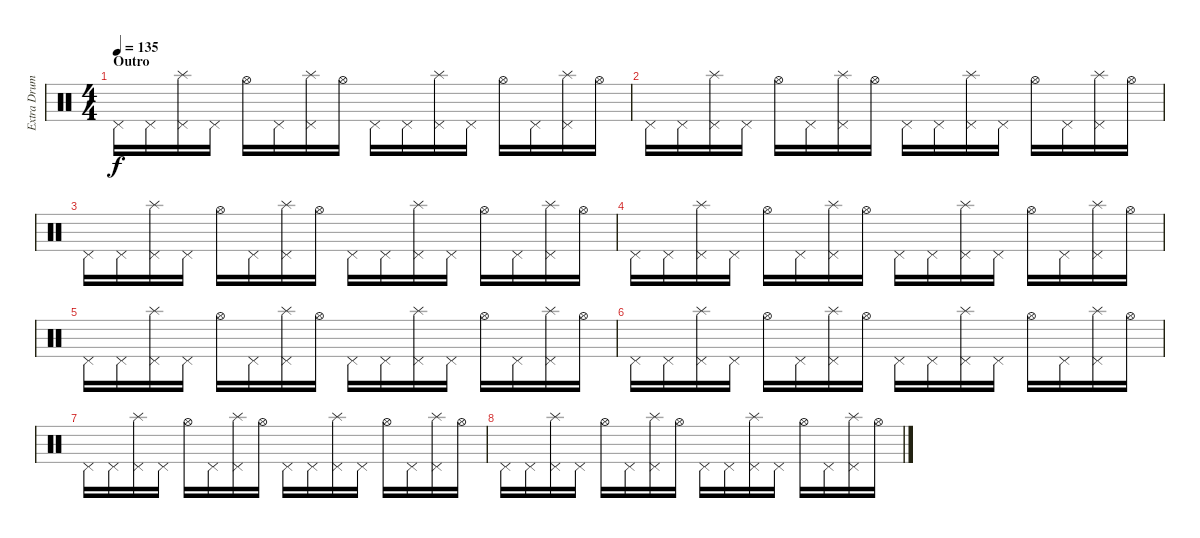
\track ("Extra Drums" "Extra Drum") {instrument percussion}
\staff {score}
\articulation defaults
\ts (4 4)
\section ("" "Outro")
\tempo 135
\clef neutral
\ks c "Pedal Hi-Hat (hit)".16{dy f} "Pedal Hi-Hat (hit)".16
("Pedal Hi-Hat (hit)" "Splash (hit)").16 "Pedal Hi-Hat (hit)".16 "Hi-Hat (open)".16 "Pedal Hi-Hat (hit)".16 ("Pedal Hi-Hat (hit)" "Splash (hit)").16 "Hi-Hat (open)".16 "Pedal Hi-Hat (hit)".16 "Pedal Hi-Hat (hit)".16 ("Pedal Hi-Hat (hit)" "Splash (hit)").16 "Pedal Hi-Hat (hit)".16 "Hi-Hat (open)".16 "Pedal Hi-Hat (hit)".16 ("Pedal Hi-Hat (hit)" "Splash (hit)").16 "Hi-Hat (open)".16 |
"Pedal Hi-Hat (hit)".16 "Pedal Hi-Hat (hit)".16 ("Pedal Hi-Hat (hit)" "Splash (hit)").16 "Pedal Hi-Hat (hit)".16 "Hi-Hat (open)".16 "Pedal Hi-Hat (hit)".16 ("Pedal Hi-Hat (hit)" "Splash (hit)").16 "Hi-Hat (open)".16 "Pedal Hi-Hat (hit)".16 "Pedal Hi-Hat (hit)".16 ("Pedal Hi-Hat (hit)" "Splash (hit)").16 "Pedal Hi-Hat (hit)".16 "Hi-Hat (open)".16 "Pedal Hi-Hat (hit)".16 ("Pedal Hi-Hat (hit)" "Splash (hit)").16 "Hi-Hat (open)".16 |
"Pedal Hi-Hat (hit)".16 "Pedal Hi-Hat (hit)".16 ("Pedal Hi-Hat (hit)" "Splash (hit)").16 "Pedal Hi-Hat (hit)".16 "Hi-Hat (open)".16 "Pedal Hi-Hat (hit)".16 ("Pedal Hi-Hat (hit)" "Splash (hit)").16 "Hi-Hat (open)".16 "Pedal Hi-Hat (hit)".16 "Pedal Hi-Hat (hit)".16 ("Pedal Hi-Hat (hit)" "Splash (hit)").16 "Pedal Hi-Hat (hit)".16 "Hi-Hat (open)".16 "Pedal Hi-Hat (hit)".16 ("Pedal Hi-Hat (hit)" "Splash (hit)").16 "Hi-Hat (open)".16 |
"Pedal Hi-Hat (hit)".16 "Pedal Hi-Hat (hit)".16 ("Pedal Hi-Hat (hit)" "Splash (hit)").16 "Pedal Hi-Hat (hit)".16 "Hi-Hat (open)".16 "Pedal Hi-Hat (hit)".16 ("Pedal Hi-Hat (hit)" "Splash (hit)").16 "Hi-Hat (open)".16 "Pedal Hi-Hat (hit)".16 "Pedal Hi-Hat (hit)".16 ("Pedal Hi-Hat (hit)" "Splash (hit)").16 "Pedal Hi-Hat (hit)".16 "Hi-Hat (open)".16 "Pedal Hi-Hat (hit)".16 ("Pedal Hi-Hat (hit)" "Splash (hit)").16 "Hi-Hat (open)".16 |
"Pedal Hi-Hat (hit)".16 "Pedal Hi-Hat (hit)".16 ("Pedal Hi-Hat (hit)" "Splash (hit)").16 "Pedal Hi-Hat (hit)".16 "Hi-Hat (open)".16 "Pedal Hi-Hat (hit)".16 ("Pedal Hi-Hat (hit)" "Splash (hit)").16 "Hi-Hat (open)".16 "Pedal Hi-Hat (hit)".16 "Pedal Hi-Hat (hit)".16 ("Pedal Hi-Hat (hit)" "Splash (hit)").16 "Pedal Hi-Hat (hit)".16 "Hi-Hat (open)".16 "Pedal Hi-Hat (hit)".16 ("Pedal Hi-Hat (hit)" "Splash (hit)").16 "Hi-Hat (open)".16 |
"Pedal Hi-Hat (hit)".16 "Pedal Hi-Hat (hit)".16 ("Pedal Hi-Hat (hit)" "Splash (hit)").16 "Pedal Hi-Hat (hit)".16 "Hi-Hat (open)".16 "Pedal Hi-Hat (hit)".16 ("Pedal Hi-Hat (hit)" "Splash (hit)").16 "Hi-Hat (open)".16 "Pedal Hi-Hat (hit)".16 "Pedal Hi-Hat (hit)".16 ("Pedal Hi-Hat (hit)" "Splash (hit)").16 "Pedal Hi-Hat (hit)".16 "Hi-Hat (open)".16 "Pedal Hi-Hat (hit)".16 ("Pedal Hi-Hat (hit)" "Splash (hit)").16 "Hi-Hat (open)".16 |
"Pedal Hi-Hat (hit)".16 "Pedal Hi-Hat (hit)".16 ("Pedal Hi-Hat (hit)" "Splash (hit)").16 "Pedal Hi-Hat (hit)".16 "Hi-Hat (open)".16 "Pedal Hi-Hat (hit)".16 ("Pedal Hi-Hat (hit)" "Splash (hit)").16 "Hi-Hat (open)".16 "Pedal Hi-Hat (hit)".16 "Pedal Hi-Hat (hit)".16 ("Pedal Hi-Hat (hit)" "Splash (hit)").16 "Pedal Hi-Hat (hit)".16 "Hi-Hat (open)".16 "Pedal Hi-Hat (hit)".16 ("Pedal Hi-Hat (hit)" "Splash (hit)").16 "Hi-Hat (open)".16 |
"Pedal Hi-Hat (hit)".16 "Pedal Hi-Hat (hit)".16 ("Pedal Hi-Hat (hit)" "Splash (hit)").16 "Pedal Hi-Hat (hit)".16 "Hi-Hat (open)".16 "Pedal Hi-Hat (hit)".16 ("Pedal Hi-Hat (hit)" "Splash (hit)").16 "Hi-Hat (open)".16 "Pedal Hi-Hat (hit)".16 "Pedal Hi-Hat (hit)".16 ("Pedal Hi-Hat (hit)" "Splash (hit)").16 "Pedal Hi-Hat (hit)".16 "Hi-Hat (open)".16 "Pedal Hi-Hat (hit)".16 ("Pedal Hi-Hat (hit)" "Splash (hit)").16 "Hi-Hat (open)".16
